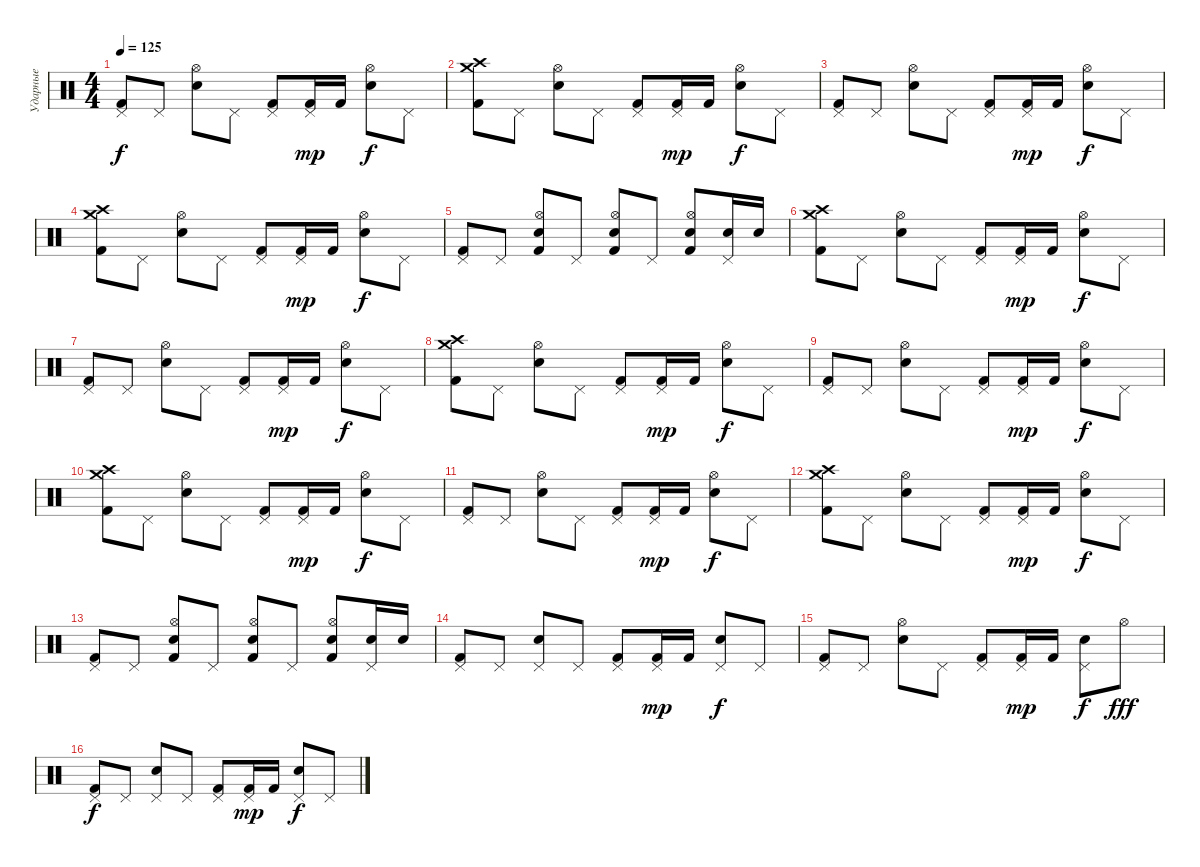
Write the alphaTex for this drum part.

\track ("Ударные" "Ударные") {instrument percussion}
\staff {score}
\articulation defaults
\ts (4 4)
\tempo 125
\clef neutral
\ks c
("Pedal Hi-Hat (hit)" "Kick (hit) 2").8{dy f} "Pedal Hi-Hat (hit)".8 ("Hi-Hat (open)" "Snare (hit) 2").8 "Pedal Hi-Hat (hit)".8 ("Pedal Hi-Hat (hit)" "Kick (hit) 2").8 ("Pedal Hi-Hat (hit)" "Kick (hit) 2").16{dy mp} "Kick (hit) 2".16 ("Hi-Hat (open)" "Snare (hit) 2").8{dy f} "Pedal Hi-Hat (hit)".8 |
("Crash high (hit)" "Crash medium (hit)" "Kick (hit) 2").8 "Pedal Hi-Hat (hit)".8 ("Hi-Hat (open)" "Snare (hit) 2").8 "Pedal Hi-Hat (hit)".8 ("Pedal Hi-Hat (hit)" "Kick (hit) 2").8 ("Pedal Hi-Hat (hit)" "Kick (hit) 2").16{dy mp} "Kick (hit) 2".16 ("Hi-Hat (open)" "Snare (hit) 2").8{dy f} "Pedal Hi-Hat (hit)".8 |
("Pedal Hi-Hat (hit)" "Kick (hit) 2").8 "Pedal Hi-Hat (hit)".8 ("Hi-Hat (open)" "Snare (hit) 2").8 "Pedal Hi-Hat (hit)".8 ("Pedal Hi-Hat (hit)" "Kick (hit) 2").8 ("Pedal Hi-Hat (hit)" "Kick (hit) 2").16{dy mp} "Kick (hit) 2".16 ("Hi-Hat (open)" "Snare (hit) 2").8{dy f} "Pedal Hi-Hat (hit)".8 |
("Crash high (hit)" "Crash medium (hit)" "Kick (hit) 2").8 "Pedal Hi-Hat (hit)".8 ("Hi-Hat (open)" "Snare (hit) 2").8 "Pedal Hi-Hat (hit)".8 ("Pedal Hi-Hat (hit)" "Kick (hit) 2").8 ("Pedal Hi-Hat (hit)" "Kick (hit) 2").16{dy mp} "Kick (hit) 2".16 ("Hi-Hat (open)" "Snare (hit) 2").8{dy f} "Pedal Hi-Hat (hit)".8 |
("Pedal Hi-Hat (hit)" "Kick (hit) 2").8 "Pedal Hi-Hat (hit)".8 ("Hi-Hat (open)" "Snare (hit) 2" "Kick (hit) 2").8 "Pedal Hi-Hat (hit)".8 ("Hi-Hat (open)" "Snare (hit) 2" "Kick (hit) 2").8 "Pedal Hi-Hat (hit)".8 ("Hi-Hat (open)" "Snare (hit) 2" "Kick (hit) 2").8 ("Pedal Hi-Hat (hit)" "Snare (hit) 2").16 "Snare (hit) 2".16 |
("Crash high (hit)" "Crash medium (hit)" "Kick (hit) 2").8 "Pedal Hi-Hat (hit)".8 ("Hi-Hat (open)" "Snare (hit) 2").8 "Pedal Hi-Hat (hit)".8 ("Pedal Hi-Hat (hit)" "Kick (hit) 2").8 ("Pedal Hi-Hat (hit)" "Kick (hit) 2").16{dy mp} "Kick (hit) 2".16 ("Hi-Hat (open)" "Snare (hit) 2").8{dy f} "Pedal Hi-Hat (hit)".8 |
("Pedal Hi-Hat (hit)" "Kick (hit) 2").8 "Pedal Hi-Hat (hit)".8 ("Hi-Hat (open)" "Snare (hit) 2").8 "Pedal Hi-Hat (hit)".8 ("Pedal Hi-Hat (hit)" "Kick (hit) 2").8 ("Pedal Hi-Hat (hit)" "Kick (hit) 2").16{dy mp} "Kick (hit) 2".16 ("Hi-Hat (open)" "Snare (hit) 2").8{dy f} "Pedal Hi-Hat (hit)".8 |
("Crash high (hit)" "Crash medium (hit)" "Kick (hit) 2").8 "Pedal Hi-Hat (hit)".8 ("Hi-Hat (open)" "Snare (hit) 2").8 "Pedal Hi-Hat (hit)".8 ("Pedal Hi-Hat (hit)" "Kick (hit) 2").8 ("Pedal Hi-Hat (hit)" "Kick (hit) 2").16{dy mp} "Kick (hit) 2".16 ("Hi-Hat (open)" "Snare (hit) 2").8{dy f} "Pedal Hi-Hat (hit)".8 |
("Pedal Hi-Hat (hit)" "Kick (hit) 2").8 "Pedal Hi-Hat (hit)".8 ("Hi-Hat (open)" "Snare (hit) 2").8 "Pedal Hi-Hat (hit)".8 ("Pedal Hi-Hat (hit)" "Kick (hit) 2").8 ("Pedal Hi-Hat (hit)" "Kick (hit) 2").16{dy mp} "Kick (hit) 2".16 ("Hi-Hat (open)" "Snare (hit) 2").8{dy f} "Pedal Hi-Hat (hit)".8 |
("Crash high (hit)" "Crash medium (hit)" "Kick (hit) 2").8 "Pedal Hi-Hat (hit)".8 ("Hi-Hat (open)" "Snare (hit) 2").8 "Pedal Hi-Hat (hit)".8 ("Pedal Hi-Hat (hit)" "Kick (hit) 2").8 ("Pedal Hi-Hat (hit)" "Kick (hit) 2").16{dy mp} "Kick (hit) 2".16 ("Hi-Hat (open)" "Snare (hit) 2").8{dy f} "Pedal Hi-Hat (hit)".8 |
("Pedal Hi-Hat (hit)" "Kick (hit) 2").8 "Pedal Hi-Hat (hit)".8 ("Hi-Hat (open)" "Snare (hit) 2").8 "Pedal Hi-Hat (hit)".8 ("Pedal Hi-Hat (hit)" "Kick (hit) 2").8 ("Pedal Hi-Hat (hit)" "Kick (hit) 2").16{dy mp} "Kick (hit) 2".16 ("Hi-Hat (open)" "Snare (hit) 2").8{dy f} "Pedal Hi-Hat (hit)".8 |
("Crash high (hit)" "Crash medium (hit)" "Kick (hit) 2").8 "Pedal Hi-Hat (hit)".8 ("Hi-Hat (open)" "Snare (hit) 2").8 "Pedal Hi-Hat (hit)".8 ("Pedal Hi-Hat (hit)" "Kick (hit) 2").8 ("Pedal Hi-Hat (hit)" "Kick (hit) 2").16{dy mp} "Kick (hit) 2".16 ("Hi-Hat (open)" "Snare (hit) 2").8{dy f} "Pedal Hi-Hat (hit)".8 |
("Pedal Hi-Hat (hit)" "Kick (hit) 2").8 "Pedal Hi-Hat (hit)".8 ("Hi-Hat (open)" "Snare (hit) 2" "Kick (hit) 2").8 "Pedal Hi-Hat (hit)".8 ("Hi-Hat (open)" "Snare (hit) 2" "Kick (hit) 2").8 "Pedal Hi-Hat (hit)".8 ("Hi-Hat (open)" "Snare (hit) 2" "Kick (hit) 2").8 ("Pedal Hi-Hat (hit)" "Snare (hit) 2").16 "Snare (hit) 2".16 |
("Pedal Hi-Hat (hit)" "Kick (hit) 2").8 "Pedal Hi-Hat (hit)".8 ("Pedal Hi-Hat (hit)" "Snare (hit) 2").8 "Pedal Hi-Hat (hit)".8 ("Pedal Hi-Hat (hit)" "Kick (hit) 2").8 ("Pedal Hi-Hat (hit)" "Kick (hit) 2").16{dy mp} "Kick (hit) 2".16 ("Pedal Hi-Hat (hit)" "Snare (hit) 2").8{dy f} "Pedal Hi-Hat (hit)".8 |
("Pedal Hi-Hat (hit)" "Kick (hit) 2").8 "Pedal Hi-Hat (hit)".8 ("Hi-Hat (open)" "Snare (hit) 2").8 "Pedal Hi-Hat (hit)".8 ("Pedal Hi-Hat (hit)" "Kick (hit) 2").8 ("Pedal Hi-Hat (hit)" "Kick (hit) 2").16{dy mp} "Kick (hit) 2".16 ("Pedal Hi-Hat (hit)" "Snare (hit) 2").8{dy f} "Hi-Hat (open)".8{dy fff} |
("Pedal Hi-Hat (hit)" "Kick (hit) 2").8{dy f} "Pedal Hi-Hat (hit)".8 ("Pedal Hi-Hat (hit)" "Snare (hit) 2").8 "Pedal Hi-Hat (hit)".8 ("Pedal Hi-Hat (hit)" "Kick (hit) 2").8 ("Pedal Hi-Hat (hit)" "Kick (hit) 2").16{dy mp} "Kick (hit) 2".16 ("Pedal Hi-Hat (hit)" "Snare (hit) 2").8{dy f} "Pedal Hi-Hat (hit)".8
